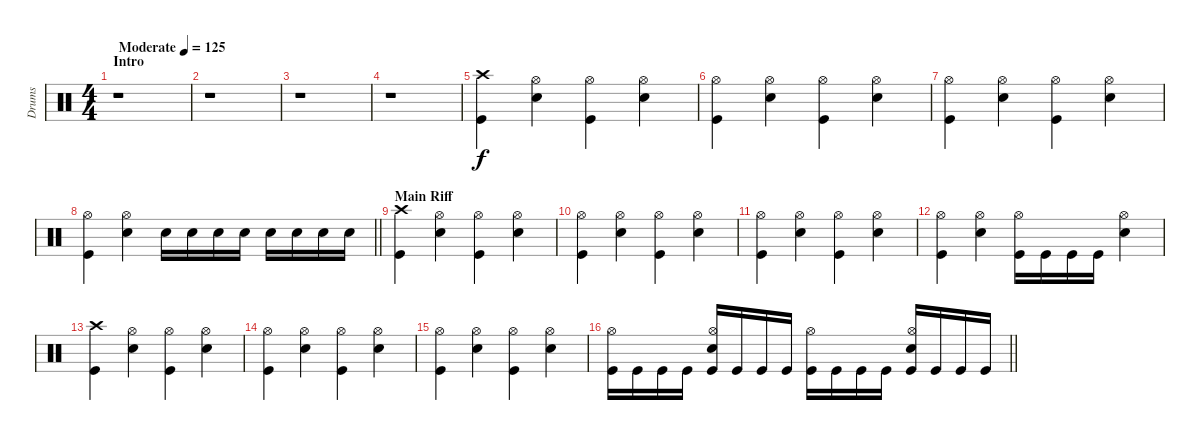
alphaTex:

\track ("Drums" "Drums") {instrument percussion}
\staff {score}
\articulation defaults
\ts (4 4)
\section ("" "Intro ")
\tempo (125 "Moderate")
\clef neutral
\ks c
r.1{dy f} |
r.1 |
r.1 |
r.1 |
("Crash high (hit)" "Kick (hit)").4 ("Hi-Hat (open)" "Electric Snare (hit)").4 ("Hi-Hat (open)" "Kick (hit)").4 ("Hi-Hat (open)" "Electric Snare (hit)").4 |
("Hi-Hat (open)" "Kick (hit)").4 ("Hi-Hat (open)" "Electric Snare (hit)").4 ("Hi-Hat (open)" "Kick (hit)").4 ("Hi-Hat (open)" "Electric Snare (hit)").4 |
("Hi-Hat (open)" "Kick (hit)").4 ("Hi-Hat (open)" "Electric Snare (hit)").4 ("Hi-Hat (open)" "Kick (hit)").4 ("Hi-Hat (open)" "Electric Snare (hit)").4 |
\barLineRight lightlight
("Hi-Hat (open)" "Kick (hit)").4 ("Hi-Hat (open)" "Electric Snare (hit)").4 "Electric Snare (hit)".16 "Electric Snare (hit)".16 "Electric Snare (hit)".16 "Electric Snare (hit)".16 "Electric Snare (hit)".16 "Electric Snare (hit)".16 "Electric Snare (hit)".16 "Electric Snare (hit)".16 |
\section ("" "Main Riff")
("Crash high (hit)" "Kick (hit)").4 ("Hi-Hat (open)" "Electric Snare (hit)").4 ("Hi-Hat (open)" "Kick (hit)").4 ("Hi-Hat (open)" "Electric Snare (hit)").4 |
("Hi-Hat (open)" "Kick (hit)").4 ("Hi-Hat (open)" "Electric Snare (hit)").4 ("Hi-Hat (open)" "Kick (hit)").4 ("Hi-Hat (open)" "Electric Snare (hit)").4 |
("Hi-Hat (open)" "Kick (hit)").4 ("Hi-Hat (open)" "Electric Snare (hit)").4 ("Hi-Hat (open)" "Kick (hit)").4 ("Hi-Hat (open)" "Electric Snare (hit)").4 |
("Hi-Hat (open)" "Kick (hit)").4 ("Hi-Hat (open)" "Electric Snare (hit)").4 ("Hi-Hat (open)" "Kick (hit)").16 "Kick (hit)".16 "Kick (hit)".16 "Kick (hit)".16 ("Hi-Hat (open)" "Electric Snare (hit)").4 |
("Crash high (hit)" "Kick (hit)").4 ("Hi-Hat (open)" "Electric Snare (hit)").4 ("Hi-Hat (open)" "Kick (hit)").4 ("Hi-Hat (open)" "Electric Snare (hit)").4 |
("Hi-Hat (open)" "Kick (hit)").4 ("Hi-Hat (open)" "Electric Snare (hit)").4 ("Hi-Hat (open)" "Kick (hit)").4 ("Hi-Hat (open)" "Electric Snare (hit)").4 |
("Hi-Hat (open)" "Kick (hit)").4 ("Hi-Hat (open)" "Electric Snare (hit)").4 ("Hi-Hat (open)" "Kick (hit)").4 ("Hi-Hat (open)" "Electric Snare (hit)").4 |
\barLineRight lightlight
("Hi-Hat (open)" "Kick (hit)").16 "Kick (hit)".16 "Kick (hit)".16 "Kick (hit)".16 ("Hi-Hat (open)" "Electric Snare (hit)" "Kick (hit)").16 "Kick (hit)".16 "Kick (hit)".16 "Kick (hit)".16 ("Hi-Hat (open)" "Kick (hit)").16 "Kick (hit)".16 "Kick (hit)".16 "Kick (hit)".16 ("Hi-Hat (open)" "Electric Snare (hit)" "Kick (hit)").16 "Kick (hit)".16 "Kick (hit)".16 "Kick (hit)".16
